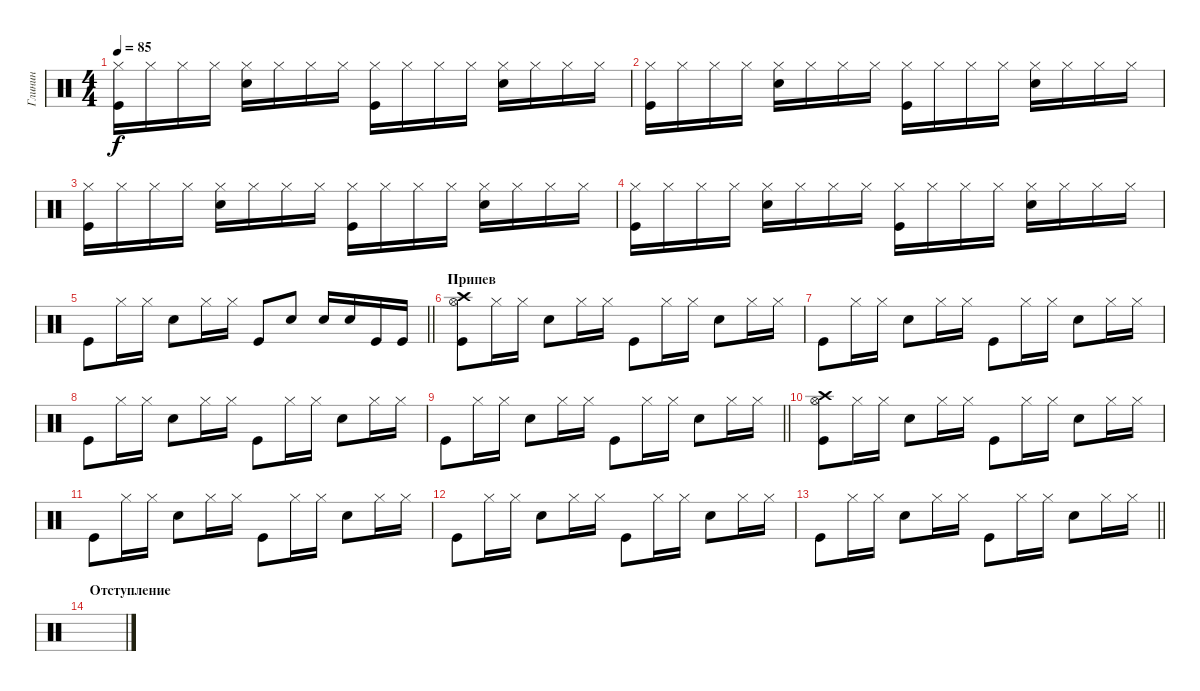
\track ("Глинин" "Глинин") {instrument percussion}
\staff {score}
\articulation defaults
\ts (4 4)
\tempo 85
\clef neutral
\ks c
("Hi-Hat (closed)" "Kick (hit)").16{dy f} "Hi-Hat (closed)".16 "Hi-Hat (closed)".16 "Hi-Hat (closed)".16 ("Hi-Hat (closed)" "Snare (hit) 2").16 "Hi-Hat (closed)".16 "Hi-Hat (closed)".16 "Hi-Hat (closed)".16 ("Hi-Hat (closed)" "Kick (hit)").16 "Hi-Hat (closed)".16 "Hi-Hat (closed)".16 "Hi-Hat (closed)".16 ("Hi-Hat (closed)" "Snare (hit) 2").16 "Hi-Hat (closed)".16 "Hi-Hat (closed)".16 "Hi-Hat (closed)".16 |
("Hi-Hat (closed)" "Kick (hit)").16 "Hi-Hat (closed)".16 "Hi-Hat (closed)".16 "Hi-Hat (closed)".16 ("Hi-Hat (closed)" "Snare (hit) 2").16 "Hi-Hat (closed)".16 "Hi-Hat (closed)".16 "Hi-Hat (closed)".16 ("Hi-Hat (closed)" "Kick (hit)").16 "Hi-Hat (closed)".16 "Hi-Hat (closed)".16 "Hi-Hat (closed)".16 ("Hi-Hat (closed)" "Snare (hit) 2").16 "Hi-Hat (closed)".16 "Hi-Hat (closed)".16 "Hi-Hat (closed)".16 |
("Hi-Hat (closed)" "Kick (hit)").16 "Hi-Hat (closed)".16 "Hi-Hat (closed)".16 "Hi-Hat (closed)".16 ("Hi-Hat (closed)" "Snare (hit) 2").16 "Hi-Hat (closed)".16 "Hi-Hat (closed)".16 "Hi-Hat (closed)".16 ("Hi-Hat (closed)" "Kick (hit)").16 "Hi-Hat (closed)".16 "Hi-Hat (closed)".16 "Hi-Hat (closed)".16 ("Hi-Hat (closed)" "Snare (hit) 2").16 "Hi-Hat (closed)".16 "Hi-Hat (closed)".16 "Hi-Hat (closed)".16 |
("Hi-Hat (closed)" "Kick (hit)").16 "Hi-Hat (closed)".16 "Hi-Hat (closed)".16 "Hi-Hat (closed)".16 ("Hi-Hat (closed)" "Snare (hit) 2").16 "Hi-Hat (closed)".16 "Hi-Hat (closed)".16 "Hi-Hat (closed)".16 ("Hi-Hat (closed)" "Kick (hit)").16 "Hi-Hat (closed)".16 "Hi-Hat (closed)".16 "Hi-Hat (closed)".16 ("Hi-Hat (closed)" "Snare (hit) 2").16 "Hi-Hat (closed)".16 "Hi-Hat (closed)".16 "Hi-Hat (closed)".16 |
\barLineRight lightlight "Kick (hit)".8 "Hi-Hat (closed)".16 "Hi-Hat (closed)".16 "Snare (hit) 2".8 "Hi-Hat (closed)".16 "Hi-Hat (closed)".16 "Kick (hit)".8 "Snare (hit) 2".8 "Snare (hit) 2".16 "Snare (hit) 2".16 "Kick (hit)".16 "Kick (hit)".16
|
\section ("" "Припев")
("Kick (hit)" "Hi-Hat (open)" "Crash high (hit)").8 "Hi-Hat (closed)".16 "Hi-Hat (closed)".16 "Snare (hit) 2".8 "Hi-Hat (closed)".16 "Hi-Hat (closed)".16 "Kick (hit)".8 "Hi-Hat (closed)".16 "Hi-Hat (closed)".16 "Snare (hit) 2".8 "Hi-Hat (closed)".16 "Hi-Hat (closed)".16 |
"Kick (hit)".8 "Hi-Hat (closed)".16 "Hi-Hat (closed)".16 "Snare (hit) 2".8 "Hi-Hat (closed)".16 "Hi-Hat (closed)".16 "Kick (hit)".8 "Hi-Hat (closed)".16 "Hi-Hat (closed)".16 "Snare (hit) 2".8 "Hi-Hat (closed)".16 "Hi-Hat (closed)".16 |
"Kick (hit)".8 "Hi-Hat (closed)".16 "Hi-Hat (closed)".16 "Snare (hit) 2".8 "Hi-Hat (closed)".16 "Hi-Hat (closed)".16 "Kick (hit)".8 "Hi-Hat (closed)".16 "Hi-Hat (closed)".16 "Snare (hit) 2".8 "Hi-Hat (closed)".16 "Hi-Hat (closed)".16 |
\barLineRight lightlight "Kick (hit)".8 "Hi-Hat (closed)".16 "Hi-Hat (closed)".16 "Snare (hit) 2".8 "Hi-Hat (closed)".16 "Hi-Hat (closed)".16 "Kick (hit)".8 "Hi-Hat (closed)".16 "Hi-Hat (closed)".16 "Snare (hit) 2".8 "Hi-Hat (closed)".16 "Hi-Hat (closed)".16
|
("Kick (hit)" "Hi-Hat (open)" "Crash high (hit)").8 "Hi-Hat (closed)".16 "Hi-Hat (closed)".16 "Snare (hit) 2".8 "Hi-Hat (closed)".16 "Hi-Hat (closed)".16 "Kick (hit)".8 "Hi-Hat (closed)".16 "Hi-Hat (closed)".16 "Snare (hit) 2".8 "Hi-Hat (closed)".16 "Hi-Hat (closed)".16 |
"Kick (hit)".8 "Hi-Hat (closed)".16 "Hi-Hat (closed)".16 "Snare (hit) 2".8 "Hi-Hat (closed)".16 "Hi-Hat (closed)".16 "Kick (hit)".8 "Hi-Hat (closed)".16 "Hi-Hat (closed)".16 "Snare (hit) 2".8 "Hi-Hat (closed)".16 "Hi-Hat (closed)".16 |
"Kick (hit)".8 "Hi-Hat (closed)".16 "Hi-Hat (closed)".16 "Snare (hit) 2".8 "Hi-Hat (closed)".16 "Hi-Hat (closed)".16 "Kick (hit)".8 "Hi-Hat (closed)".16 "Hi-Hat (closed)".16 "Snare (hit) 2".8 "Hi-Hat (closed)".16 "Hi-Hat (closed)".16 |
\barLineRight lightlight "Kick (hit)".8 "Hi-Hat (closed)".16 "Hi-Hat (closed)".16 "Snare (hit) 2".8 "Hi-Hat (closed)".16 "Hi-Hat (closed)".16 "Kick (hit)".8 "Hi-Hat (closed)".16 "Hi-Hat (closed)".16 "Snare (hit) 2".8 "Hi-Hat (closed)".16 "Hi-Hat (closed)".16
|
\section ("" "Отступление")
